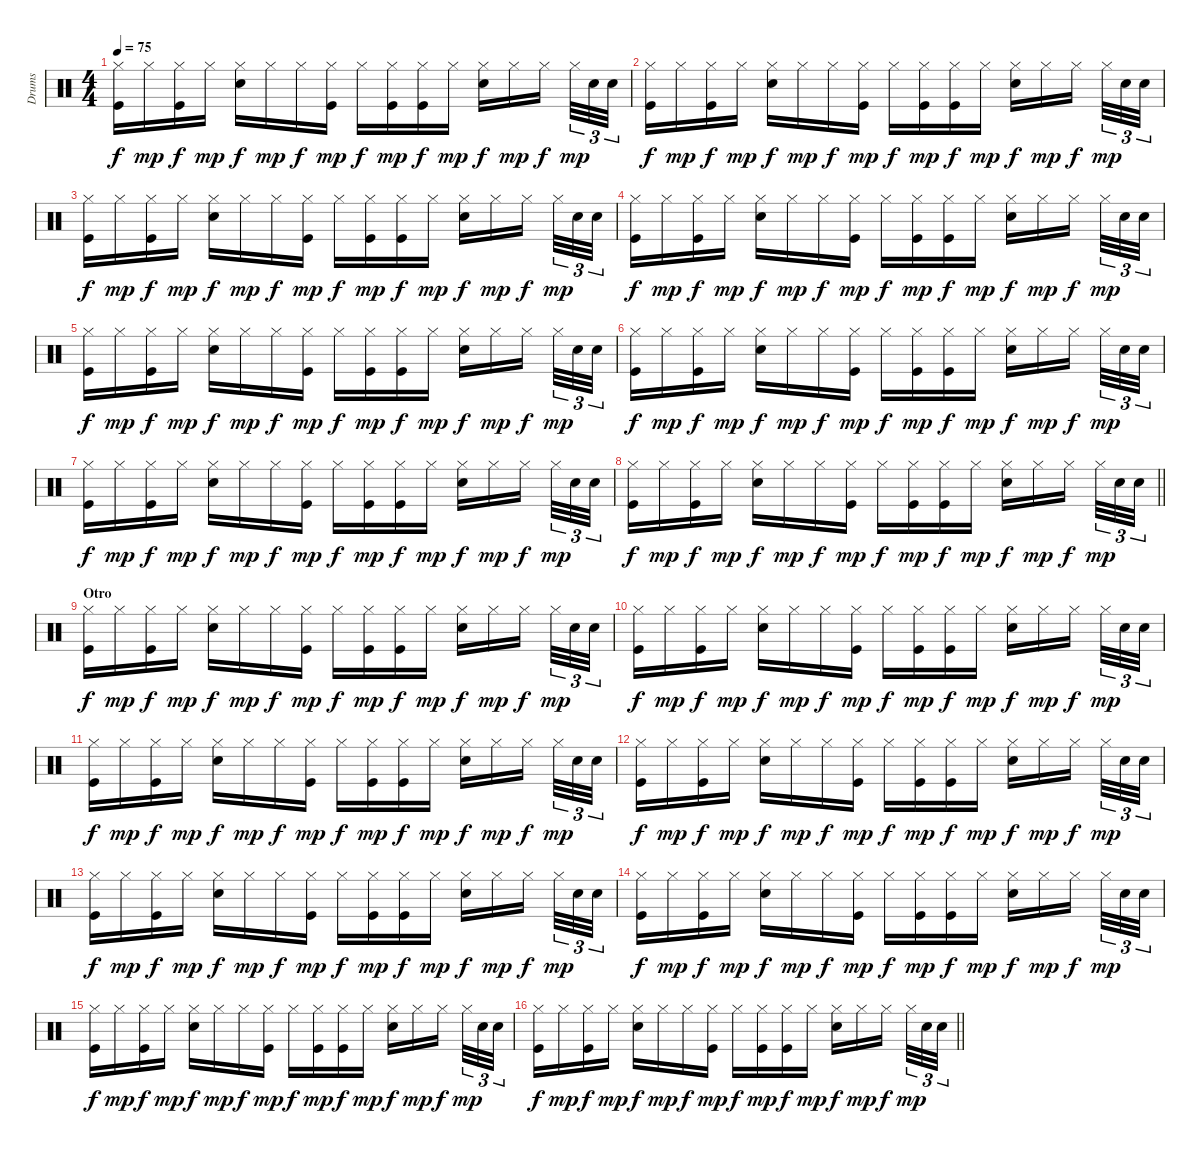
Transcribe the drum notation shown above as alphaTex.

\track ("Drums" "Drums") {instrument percussion}
\staff {score}
\articulation defaults
\ts (4 4)
\tempo 75
\clef neutral
\ks c
("Hi-Hat (closed)" "Kick (hit)").16{dy f} "Hi-Hat (closed)".16{dy mp} ("Hi-Hat (closed)" "Kick (hit)").16{dy f} "Hi-Hat (closed)".16{dy mp} ("Hi-Hat (closed)" "Snare (hit) 2").16{dy f} "Hi-Hat (closed)".16{dy mp} "Hi-Hat (closed)".16{dy f} ("Hi-Hat (closed)" "Kick (hit)").16{dy mp} "Hi-Hat (closed)".16{dy f} ("Hi-Hat (closed)" "Kick (hit)").16{dy mp} ("Hi-Hat (closed)" "Kick (hit)").16{dy f} "Hi-Hat (closed)".16{dy mp} ("Hi-Hat (closed)" "Snare (hit) 2").16{dy f} "Hi-Hat (closed)".16{dy mp} "Hi-Hat (closed)".16{dy f beam splitsecondary} "Hi-Hat (closed)".32{tu (3 2) dy mp} "Snare (hit) 2".32{tu (3 2)} "Snare (hit) 2".32{tu (3 2)} |
("Hi-Hat (closed)" "Kick (hit)").16{dy f} "Hi-Hat (closed)".16{dy mp} ("Hi-Hat (closed)" "Kick (hit)").16{dy f} "Hi-Hat (closed)".16{dy mp} ("Hi-Hat (closed)" "Snare (hit) 2").16{dy f} "Hi-Hat (closed)".16{dy mp} "Hi-Hat (closed)".16{dy f} ("Hi-Hat (closed)" "Kick (hit)").16{dy mp} "Hi-Hat (closed)".16{dy f} ("Hi-Hat (closed)" "Kick (hit)").16{dy mp} ("Hi-Hat (closed)" "Kick (hit)").16{dy f} "Hi-Hat (closed)".16{dy mp} ("Hi-Hat (closed)" "Snare (hit) 2").16{dy f} "Hi-Hat (closed)".16{dy mp} "Hi-Hat (closed)".16{dy f beam splitsecondary} "Hi-Hat (closed)".32{tu (3 2) dy mp} "Snare (hit) 2".32{tu (3 2)} "Snare (hit) 2".32{tu (3 2)} |
("Hi-Hat (closed)" "Kick (hit)").16{dy f} "Hi-Hat (closed)".16{dy mp} ("Hi-Hat (closed)" "Kick (hit)").16{dy f} "Hi-Hat (closed)".16{dy mp} ("Hi-Hat (closed)" "Snare (hit) 2").16{dy f} "Hi-Hat (closed)".16{dy mp} "Hi-Hat (closed)".16{dy f} ("Hi-Hat (closed)" "Kick (hit)").16{dy mp} "Hi-Hat (closed)".16{dy f} ("Hi-Hat (closed)" "Kick (hit)").16{dy mp} ("Hi-Hat (closed)" "Kick (hit)").16{dy f} "Hi-Hat (closed)".16{dy mp} ("Hi-Hat (closed)" "Snare (hit) 2").16{dy f} "Hi-Hat (closed)".16{dy mp} "Hi-Hat (closed)".16{dy f beam splitsecondary} "Hi-Hat (closed)".32{tu (3 2) dy mp} "Snare (hit) 2".32{tu (3 2)} "Snare (hit) 2".32{tu (3 2)} |
("Hi-Hat (closed)" "Kick (hit)").16{dy f} "Hi-Hat (closed)".16{dy mp} ("Hi-Hat (closed)" "Kick (hit)").16{dy f} "Hi-Hat (closed)".16{dy mp} ("Hi-Hat (closed)" "Snare (hit) 2").16{dy f} "Hi-Hat (closed)".16{dy mp} "Hi-Hat (closed)".16{dy f} ("Hi-Hat (closed)" "Kick (hit)").16{dy mp} "Hi-Hat (closed)".16{dy f} ("Hi-Hat (closed)" "Kick (hit)").16{dy mp} ("Hi-Hat (closed)" "Kick (hit)").16{dy f} "Hi-Hat (closed)".16{dy mp} ("Hi-Hat (closed)" "Snare (hit) 2").16{dy f} "Hi-Hat (closed)".16{dy mp} "Hi-Hat (closed)".16{dy f beam splitsecondary} "Hi-Hat (closed)".32{tu (3 2) dy mp} "Snare (hit) 2".32{tu (3 2)} "Snare (hit) 2".32{tu (3 2)} |
("Hi-Hat (closed)" "Kick (hit)").16{dy f} "Hi-Hat (closed)".16{dy mp} ("Hi-Hat (closed)" "Kick (hit)").16{dy f} "Hi-Hat (closed)".16{dy mp} ("Hi-Hat (closed)" "Snare (hit) 2").16{dy f} "Hi-Hat (closed)".16{dy mp} "Hi-Hat (closed)".16{dy f} ("Hi-Hat (closed)" "Kick (hit)").16{dy mp} "Hi-Hat (closed)".16{dy f} ("Hi-Hat (closed)" "Kick (hit)").16{dy mp} ("Hi-Hat (closed)" "Kick (hit)").16{dy f} "Hi-Hat (closed)".16{dy mp} ("Hi-Hat (closed)" "Snare (hit) 2").16{dy f} "Hi-Hat (closed)".16{dy mp} "Hi-Hat (closed)".16{dy f beam splitsecondary} "Hi-Hat (closed)".32{tu (3 2) dy mp} "Snare (hit) 2".32{tu (3 2)} "Snare (hit) 2".32{tu (3 2)} |
("Hi-Hat (closed)" "Kick (hit)").16{dy f} "Hi-Hat (closed)".16{dy mp} ("Hi-Hat (closed)" "Kick (hit)").16{dy f} "Hi-Hat (closed)".16{dy mp} ("Hi-Hat (closed)" "Snare (hit) 2").16{dy f} "Hi-Hat (closed)".16{dy mp} "Hi-Hat (closed)".16{dy f} ("Hi-Hat (closed)" "Kick (hit)").16{dy mp} "Hi-Hat (closed)".16{dy f} ("Hi-Hat (closed)" "Kick (hit)").16{dy mp} ("Hi-Hat (closed)" "Kick (hit)").16{dy f} "Hi-Hat (closed)".16{dy mp} ("Hi-Hat (closed)" "Snare (hit) 2").16{dy f} "Hi-Hat (closed)".16{dy mp} "Hi-Hat (closed)".16{dy f beam splitsecondary} "Hi-Hat (closed)".32{tu (3 2) dy mp} "Snare (hit) 2".32{tu (3 2)} "Snare (hit) 2".32{tu (3 2)} |
("Hi-Hat (closed)" "Kick (hit)").16{dy f} "Hi-Hat (closed)".16{dy mp} ("Hi-Hat (closed)" "Kick (hit)").16{dy f} "Hi-Hat (closed)".16{dy mp} ("Hi-Hat (closed)" "Snare (hit) 2").16{dy f} "Hi-Hat (closed)".16{dy mp} "Hi-Hat (closed)".16{dy f} ("Hi-Hat (closed)" "Kick (hit)").16{dy mp} "Hi-Hat (closed)".16{dy f} ("Hi-Hat (closed)" "Kick (hit)").16{dy mp} ("Hi-Hat (closed)" "Kick (hit)").16{dy f} "Hi-Hat (closed)".16{dy mp} ("Hi-Hat (closed)" "Snare (hit) 2").16{dy f} "Hi-Hat (closed)".16{dy mp} "Hi-Hat (closed)".16{dy f beam splitsecondary} "Hi-Hat (closed)".32{tu (3 2) dy mp} "Snare (hit) 2".32{tu (3 2)} "Snare (hit) 2".32{tu (3 2)} |
\barLineRight lightlight
("Hi-Hat (closed)" "Kick (hit)").16{dy f} "Hi-Hat (closed)".16{dy mp} ("Hi-Hat (closed)" "Kick (hit)").16{dy f} "Hi-Hat (closed)".16{dy mp} ("Hi-Hat (closed)" "Snare (hit) 2").16{dy f} "Hi-Hat (closed)".16{dy mp} "Hi-Hat (closed)".16{dy f} ("Hi-Hat (closed)" "Kick (hit)").16{dy mp} "Hi-Hat (closed)".16{dy f} ("Hi-Hat (closed)" "Kick (hit)").16{dy mp} ("Hi-Hat (closed)" "Kick (hit)").16{dy f} "Hi-Hat (closed)".16{dy mp} ("Hi-Hat (closed)" "Snare (hit) 2").16{dy f} "Hi-Hat (closed)".16{dy mp} "Hi-Hat (closed)".16{dy f beam splitsecondary} "Hi-Hat (closed)".32{tu (3 2) dy mp} "Snare (hit) 2".32{tu (3 2)} "Snare (hit) 2".32{tu (3 2)} |
\section ("" "Otro")
("Hi-Hat (closed)" "Kick (hit)").16{dy f} "Hi-Hat (closed)".16{dy mp} ("Hi-Hat (closed)" "Kick (hit)").16{dy f} "Hi-Hat (closed)".16{dy mp} ("Hi-Hat (closed)" "Snare (hit) 2").16{dy f} "Hi-Hat (closed)".16{dy mp} "Hi-Hat (closed)".16{dy f} ("Hi-Hat (closed)" "Kick (hit)").16{dy mp} "Hi-Hat (closed)".16{dy f} ("Hi-Hat (closed)" "Kick (hit)").16{dy mp} ("Hi-Hat (closed)" "Kick (hit)").16{dy f} "Hi-Hat (closed)".16{dy mp} ("Hi-Hat (closed)" "Snare (hit) 2").16{dy f} "Hi-Hat (closed)".16{dy mp} "Hi-Hat (closed)".16{dy f beam splitsecondary} "Hi-Hat (closed)".32{tu (3 2) dy mp} "Snare (hit) 2".32{tu (3 2)} "Snare (hit) 2".32{tu (3 2)} |
("Hi-Hat (closed)" "Kick (hit)").16{dy f} "Hi-Hat (closed)".16{dy mp} ("Hi-Hat (closed)" "Kick (hit)").16{dy f} "Hi-Hat (closed)".16{dy mp} ("Hi-Hat (closed)" "Snare (hit) 2").16{dy f} "Hi-Hat (closed)".16{dy mp} "Hi-Hat (closed)".16{dy f} ("Hi-Hat (closed)" "Kick (hit)").16{dy mp} "Hi-Hat (closed)".16{dy f} ("Hi-Hat (closed)" "Kick (hit)").16{dy mp} ("Hi-Hat (closed)" "Kick (hit)").16{dy f} "Hi-Hat (closed)".16{dy mp} ("Hi-Hat (closed)" "Snare (hit) 2").16{dy f} "Hi-Hat (closed)".16{dy mp} "Hi-Hat (closed)".16{dy f beam splitsecondary} "Hi-Hat (closed)".32{tu (3 2) dy mp} "Snare (hit) 2".32{tu (3 2)} "Snare (hit) 2".32{tu (3 2)} |
("Hi-Hat (closed)" "Kick (hit)").16{dy f} "Hi-Hat (closed)".16{dy mp} ("Hi-Hat (closed)" "Kick (hit)").16{dy f} "Hi-Hat (closed)".16{dy mp} ("Hi-Hat (closed)" "Snare (hit) 2").16{dy f} "Hi-Hat (closed)".16{dy mp} "Hi-Hat (closed)".16{dy f} ("Hi-Hat (closed)" "Kick (hit)").16{dy mp} "Hi-Hat (closed)".16{dy f} ("Hi-Hat (closed)" "Kick (hit)").16{dy mp} ("Hi-Hat (closed)" "Kick (hit)").16{dy f} "Hi-Hat (closed)".16{dy mp} ("Hi-Hat (closed)" "Snare (hit) 2").16{dy f} "Hi-Hat (closed)".16{dy mp} "Hi-Hat (closed)".16{dy f beam splitsecondary} "Hi-Hat (closed)".32{tu (3 2) dy mp} "Snare (hit) 2".32{tu (3 2)} "Snare (hit) 2".32{tu (3 2)} |
("Hi-Hat (closed)" "Kick (hit)").16{dy f} "Hi-Hat (closed)".16{dy mp} ("Hi-Hat (closed)" "Kick (hit)").16{dy f} "Hi-Hat (closed)".16{dy mp} ("Hi-Hat (closed)" "Snare (hit) 2").16{dy f} "Hi-Hat (closed)".16{dy mp} "Hi-Hat (closed)".16{dy f} ("Hi-Hat (closed)" "Kick (hit)").16{dy mp} "Hi-Hat (closed)".16{dy f} ("Hi-Hat (closed)" "Kick (hit)").16{dy mp} ("Hi-Hat (closed)" "Kick (hit)").16{dy f} "Hi-Hat (closed)".16{dy mp} ("Hi-Hat (closed)" "Snare (hit) 2").16{dy f} "Hi-Hat (closed)".16{dy mp} "Hi-Hat (closed)".16{dy f beam splitsecondary} "Hi-Hat (closed)".32{tu (3 2) dy mp} "Snare (hit) 2".32{tu (3 2)} "Snare (hit) 2".32{tu (3 2)} |
("Hi-Hat (closed)" "Kick (hit)").16{dy f} "Hi-Hat (closed)".16{dy mp} ("Hi-Hat (closed)" "Kick (hit)").16{dy f} "Hi-Hat (closed)".16{dy mp} ("Hi-Hat (closed)" "Snare (hit) 2").16{dy f} "Hi-Hat (closed)".16{dy mp} "Hi-Hat (closed)".16{dy f} ("Hi-Hat (closed)" "Kick (hit)").16{dy mp} "Hi-Hat (closed)".16{dy f} ("Hi-Hat (closed)" "Kick (hit)").16{dy mp} ("Hi-Hat (closed)" "Kick (hit)").16{dy f} "Hi-Hat (closed)".16{dy mp} ("Hi-Hat (closed)" "Snare (hit) 2").16{dy f} "Hi-Hat (closed)".16{dy mp} "Hi-Hat (closed)".16{dy f beam splitsecondary} "Hi-Hat (closed)".32{tu (3 2) dy mp} "Snare (hit) 2".32{tu (3 2)} "Snare (hit) 2".32{tu (3 2)} |
("Hi-Hat (closed)" "Kick (hit)").16{dy f} "Hi-Hat (closed)".16{dy mp} ("Hi-Hat (closed)" "Kick (hit)").16{dy f} "Hi-Hat (closed)".16{dy mp} ("Hi-Hat (closed)" "Snare (hit) 2").16{dy f} "Hi-Hat (closed)".16{dy mp} "Hi-Hat (closed)".16{dy f} ("Hi-Hat (closed)" "Kick (hit)").16{dy mp} "Hi-Hat (closed)".16{dy f} ("Hi-Hat (closed)" "Kick (hit)").16{dy mp} ("Hi-Hat (closed)" "Kick (hit)").16{dy f} "Hi-Hat (closed)".16{dy mp} ("Hi-Hat (closed)" "Snare (hit) 2").16{dy f} "Hi-Hat (closed)".16{dy mp} "Hi-Hat (closed)".16{dy f beam splitsecondary} "Hi-Hat (closed)".32{tu (3 2) dy mp} "Snare (hit) 2".32{tu (3 2)} "Snare (hit) 2".32{tu (3 2)} |
("Hi-Hat (closed)" "Kick (hit)").16{dy f} "Hi-Hat (closed)".16{dy mp} ("Hi-Hat (closed)" "Kick (hit)").16{dy f} "Hi-Hat (closed)".16{dy mp} ("Hi-Hat (closed)" "Snare (hit) 2").16{dy f} "Hi-Hat (closed)".16{dy mp} "Hi-Hat (closed)".16{dy f} ("Hi-Hat (closed)" "Kick (hit)").16{dy mp} "Hi-Hat (closed)".16{dy f} ("Hi-Hat (closed)" "Kick (hit)").16{dy mp} ("Hi-Hat (closed)" "Kick (hit)").16{dy f} "Hi-Hat (closed)".16{dy mp} ("Hi-Hat (closed)" "Snare (hit) 2").16{dy f} "Hi-Hat (closed)".16{dy mp} "Hi-Hat (closed)".16{dy f beam splitsecondary} "Hi-Hat (closed)".32{tu (3 2) dy mp} "Snare (hit) 2".32{tu (3 2)} "Snare (hit) 2".32{tu (3 2)} |
\barLineRight lightlight
("Hi-Hat (closed)" "Kick (hit)").16{dy f} "Hi-Hat (closed)".16{dy mp} ("Hi-Hat (closed)" "Kick (hit)").16{dy f} "Hi-Hat (closed)".16{dy mp} ("Hi-Hat (closed)" "Snare (hit) 2").16{dy f} "Hi-Hat (closed)".16{dy mp} "Hi-Hat (closed)".16{dy f} ("Hi-Hat (closed)" "Kick (hit)").16{dy mp} "Hi-Hat (closed)".16{dy f} ("Hi-Hat (closed)" "Kick (hit)").16{dy mp} ("Hi-Hat (closed)" "Kick (hit)").16{dy f} "Hi-Hat (closed)".16{dy mp} ("Hi-Hat (closed)" "Snare (hit) 2").16{dy f} "Hi-Hat (closed)".16{dy mp} "Hi-Hat (closed)".16{dy f beam splitsecondary} "Hi-Hat (closed)".32{tu (3 2) dy mp} "Snare (hit) 2".32{tu (3 2)} "Snare (hit) 2".32{tu (3 2)}
